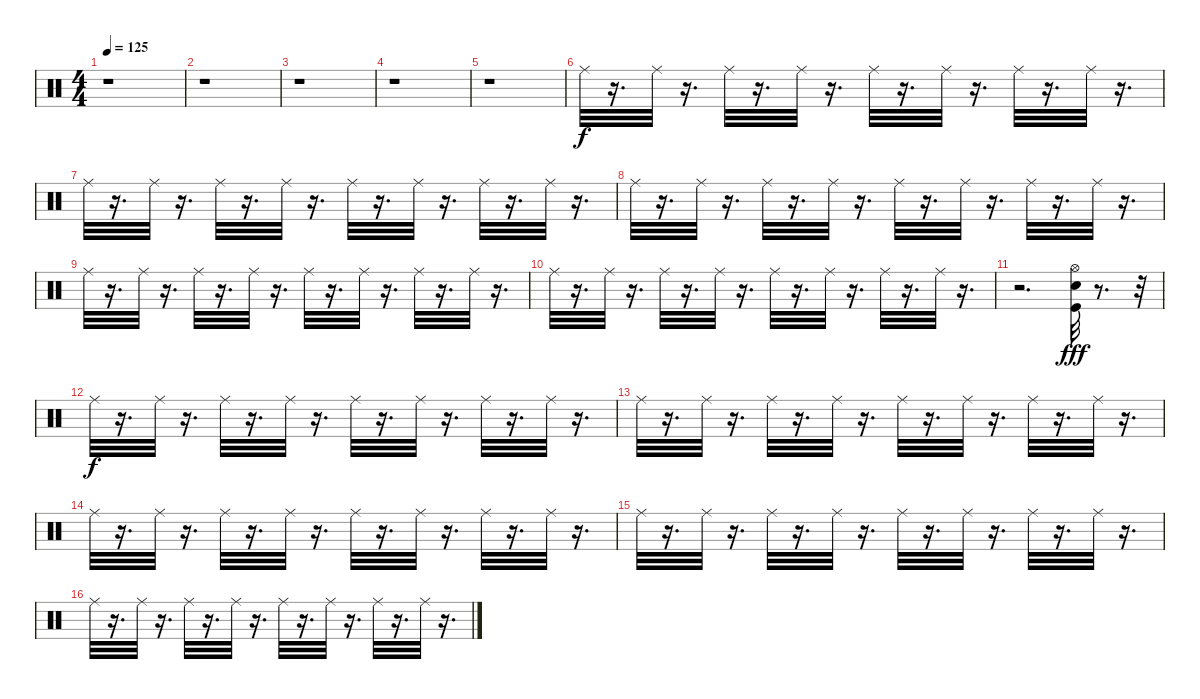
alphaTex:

\track "" {instrument percussion}
\staff {score}
\articulation defaults
\ts (4 4)
\tempo 125
\clef neutral
\ks c
r.1{dy fff} |
r.1 |
r.1 |
r.1 |
r.1 |
"Ride (middle)".32{dy f} r.16{d} "Ride (middle)".32 r.16{d} "Ride (middle)".32 r.16{d} "Ride (middle)".32 r.16{d} "Ride (middle)".32 r.16{d} "Ride (middle)".32 r.16{d} "Ride (middle)".32 r.16{d} "Ride (middle)".32 r.16{d} |
"Ride (middle)".32 r.16{d} "Ride (middle)".32 r.16{d} "Ride (middle)".32 r.16{d} "Ride (middle)".32 r.16{d} "Ride (middle)".32 r.16{d} "Ride (middle)".32 r.16{d} "Ride (middle)".32 r.16{d} "Ride (middle)".32 r.16{d} |
"Ride (middle)".32 r.16{d} "Ride (middle)".32 r.16{d} "Ride (middle)".32 r.16{d} "Ride (middle)".32 r.16{d} "Ride (middle)".32 r.16{d} "Ride (middle)".32 r.16{d} "Ride (middle)".32 r.16{d} "Ride (middle)".32 r.16{d} |
"Ride (middle)".32 r.16{d} "Ride (middle)".32 r.16{d} "Ride (middle)".32 r.16{d} "Ride (middle)".32 r.16{d} "Ride (middle)".32 r.16{d} "Ride (middle)".32 r.16{d} "Ride (middle)".32 r.16{d} "Ride (middle)".32 r.16{d} |
"Ride (middle)".32 r.16{d} "Ride (middle)".32 r.16{d} "Ride (middle)".32 r.16{d} "Ride (middle)".32 r.16{d} "Ride (middle)".32 r.16{d} "Ride (middle)".32 r.16{d} "Ride (middle)".32 r.16{d} "Ride (middle)".32 r.16{d} |
r.2{d} ("Hi-Hat (open)" "Kick (hit)" "Electric Snare (hit)").32{dy fff} r.8{d} r.32 |
"Ride (middle)".32{dy f} r.16{d} "Ride (middle)".32 r.16{d} "Ride (middle)".32 r.16{d} "Ride (middle)".32 r.16{d} "Ride (middle)".32 r.16{d} "Ride (middle)".32 r.16{d} "Ride (middle)".32 r.16{d} "Ride (middle)".32 r.16{d} |
"Ride (middle)".32 r.16{d} "Ride (middle)".32 r.16{d} "Ride (middle)".32 r.16{d} "Ride (middle)".32 r.16{d} "Ride (middle)".32 r.16{d} "Ride (middle)".32 r.16{d} "Ride (middle)".32 r.16{d} "Ride (middle)".32 r.16{d} |
"Ride (middle)".32 r.16{d} "Ride (middle)".32 r.16{d} "Ride (middle)".32 r.16{d} "Ride (middle)".32 r.16{d} "Ride (middle)".32 r.16{d} "Ride (middle)".32 r.16{d} "Ride (middle)".32 r.16{d} "Ride (middle)".32 r.16{d} |
"Ride (middle)".32 r.16{d} "Ride (middle)".32 r.16{d} "Ride (middle)".32 r.16{d} "Ride (middle)".32 r.16{d} "Ride (middle)".32 r.16{d} "Ride (middle)".32 r.16{d} "Ride (middle)".32 r.16{d} "Ride (middle)".32 r.16{d} |
"Ride (middle)".32 r.16{d} "Ride (middle)".32 r.16{d} "Ride (middle)".32 r.16{d} "Ride (middle)".32 r.16{d} "Ride (middle)".32 r.16{d} "Ride (middle)".32 r.16{d} "Ride (middle)".32 r.16{d} "Ride (middle)".32 r.16{d}
